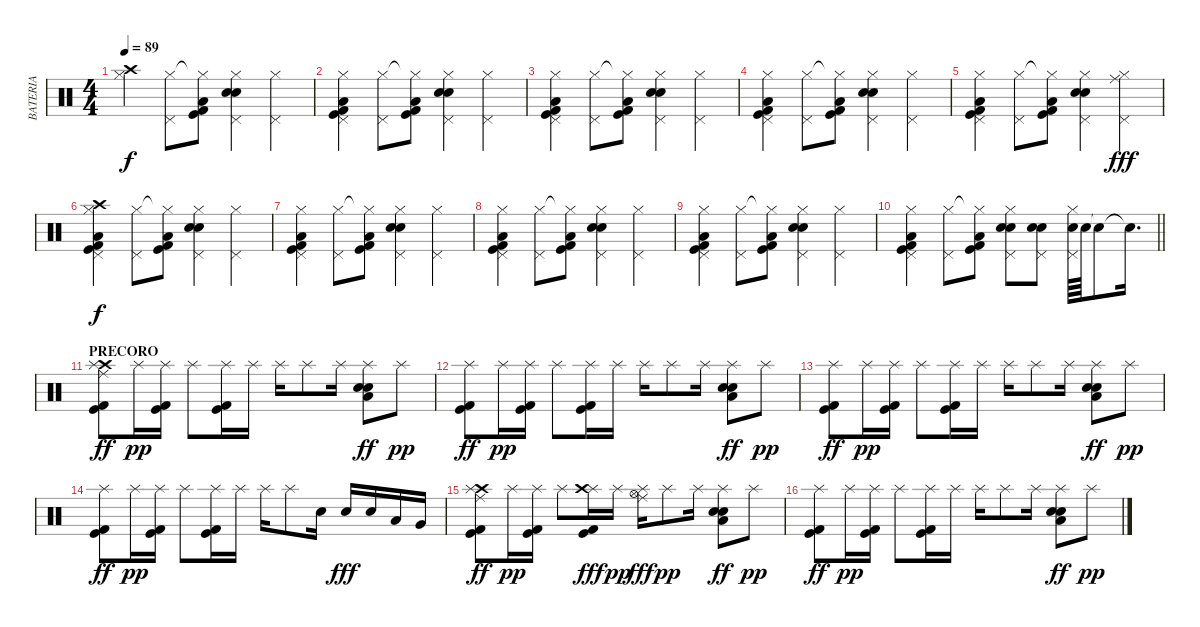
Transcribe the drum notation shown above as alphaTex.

\track ("BATERIA" "BATERIA") {instrument percussion}
\staff {score}
\articulation defaults
\ts (4 4)
\section ("" "")
\tempo 89
\clef neutral
\ks c
("Hi-Hat (closed)" "Crash high (hit)").4{dy f} ("Hi-Hat (closed)" "Pedal Hi-Hat (hit)").8 ("Hi-Hat (closed)"{t} "Kick (hit)" "Kick (hit) 2" "Low Floor Tom (hit)").8 ("Hi-Hat (closed)" "Pedal Hi-Hat (hit)" "Snare (hit) 2" "Snare (hit) 2").4 ("Hi-Hat (closed)" "Pedal Hi-Hat (hit)").4 |
("Hi-Hat (closed)" "Pedal Hi-Hat (hit)" "Kick (hit)" "Kick (hit) 2" "Low Floor Tom (hit)").4 ("Hi-Hat (closed)" "Pedal Hi-Hat (hit)").8 ("Hi-Hat (closed)"{t} "Kick (hit)" "Kick (hit) 2" "Low Floor Tom (hit)").8 ("Hi-Hat (closed)" "Pedal Hi-Hat (hit)" "Snare (hit) 2" "Snare (hit) 2").4 ("Hi-Hat (closed)" "Pedal Hi-Hat (hit)").4 |
("Hi-Hat (closed)" "Pedal Hi-Hat (hit)" "Kick (hit)" "Kick (hit) 2" "Low Floor Tom (hit)").4 ("Hi-Hat (closed)" "Pedal Hi-Hat (hit)").8 ("Hi-Hat (closed)"{t} "Kick (hit)" "Kick (hit) 2" "Low Floor Tom (hit)").8 ("Hi-Hat (closed)" "Pedal Hi-Hat (hit)" "Snare (hit) 2" "Snare (hit) 2").4 ("Hi-Hat (closed)" "Pedal Hi-Hat (hit)").4 |
("Hi-Hat (closed)" "Pedal Hi-Hat (hit)" "Kick (hit)" "Kick (hit) 2" "Low Floor Tom (hit)").4 ("Hi-Hat (closed)" "Pedal Hi-Hat (hit)").8 ("Hi-Hat (closed)"{t} "Kick (hit)" "Kick (hit) 2" "Low Floor Tom (hit)").8 ("Hi-Hat (closed)" "Pedal Hi-Hat (hit)" "Snare (hit) 2" "Snare (hit) 2").4 ("Hi-Hat (closed)" "Pedal Hi-Hat (hit)").4 |
("Hi-Hat (closed)" "Pedal Hi-Hat (hit)" "Kick (hit)" "Kick (hit) 2" "Low Floor Tom (hit)").4 ("Hi-Hat (closed)" "Pedal Hi-Hat (hit)").8 ("Hi-Hat (closed)"{t} "Kick (hit)" "Kick (hit) 2" "Low Floor Tom (hit)").8 ("Hi-Hat (closed)" "Pedal Hi-Hat (hit)" "Snare (hit) 2" "Snare (hit) 2").4 ("Hi-Hat (closed)" "Pedal Hi-Hat (hit)" "Ride (middle)").4{dy fff} |
("Hi-Hat (closed)" "Pedal Hi-Hat (hit)" "Kick (hit)" "Kick (hit) 2" "Low Floor Tom (hit)" "Crash high (hit)").4{dy f} ("Hi-Hat (closed)" "Pedal Hi-Hat (hit)").8 ("Hi-Hat (closed)"{t} "Kick (hit)" "Kick (hit) 2" "Low Floor Tom (hit)").8 ("Hi-Hat (closed)" "Pedal Hi-Hat (hit)" "Snare (hit) 2" "Snare (hit) 2").4 ("Hi-Hat (closed)" "Pedal Hi-Hat (hit)").4 |
("Hi-Hat (closed)" "Pedal Hi-Hat (hit)" "Kick (hit)" "Kick (hit) 2" "Low Floor Tom (hit)").4 ("Hi-Hat (closed)" "Pedal Hi-Hat (hit)").8 ("Hi-Hat (closed)"{t} "Kick (hit)" "Kick (hit) 2" "Low Floor Tom (hit)").8 ("Hi-Hat (closed)" "Pedal Hi-Hat (hit)" "Snare (hit) 2" "Snare (hit) 2").4 ("Hi-Hat (closed)" "Pedal Hi-Hat (hit)").4 |
("Hi-Hat (closed)" "Pedal Hi-Hat (hit)" "Kick (hit)" "Kick (hit) 2" "Low Floor Tom (hit)").4 ("Hi-Hat (closed)" "Pedal Hi-Hat (hit)").8 ("Hi-Hat (closed)"{t} "Kick (hit)" "Kick (hit) 2" "Low Floor Tom (hit)").8 ("Hi-Hat (closed)" "Pedal Hi-Hat (hit)" "Snare (hit) 2" "Snare (hit) 2").4 ("Hi-Hat (closed)" "Pedal Hi-Hat (hit)").4 |
("Hi-Hat (closed)" "Pedal Hi-Hat (hit)" "Kick (hit)" "Kick (hit) 2" "Low Floor Tom (hit)").4 ("Hi-Hat (closed)" "Pedal Hi-Hat (hit)").8 ("Hi-Hat (closed)"{t} "Kick (hit)" "Kick (hit) 2" "Low Floor Tom (hit)").8 ("Hi-Hat (closed)" "Pedal Hi-Hat (hit)" "Snare (hit) 2" "Snare (hit) 2").4 ("Hi-Hat (closed)" "Pedal Hi-Hat (hit)").4 |
\barLineRight lightlight
("Hi-Hat (closed)" "Pedal Hi-Hat (hit)" "Kick (hit)" "Kick (hit) 2" "Low Floor Tom (hit)").4 ("Hi-Hat (closed)" "Pedal Hi-Hat (hit)").8 ("Hi-Hat (closed)"{t} "Kick (hit)" "Kick (hit) 2" "Low Floor Tom (hit)").8 ("Hi-Hat (closed)" "Pedal Hi-Hat (hit)" "Snare (hit) 2" "Snare (hit) 2").8 ("Pedal Hi-Hat (hit)" "Snare (hit) 2" "Snare (hit) 2").8 ("Hi-Hat (closed)" "Pedal Hi-Hat (hit)" "Snare (hit) 2").64 "Snare (hit) 2".64 "Snare (hit)"{t}.8 "Snare (hit)"{t}.16{d} |
\section ("" "PRECORO")
("Crash high (hit)" "Splash (hit)" "Ride (middle)" "Kick (hit)" "Kick (hit) 2").8{dy ff} "Splash (hit)".16{dy pp} ("Splash (hit)" "Kick (hit)" "Kick (hit) 2").16 "Splash (hit)".8 ("Splash (hit)" "Kick (hit)" "Kick (hit) 2").16 "Splash (hit)".16 "Splash (hit)".16 "Splash (hit)".8 "Splash (hit)".16 ("Splash (hit)" "Snare (hit) 2" "Snare (hit) 2" "Low Floor Tom (hit)").8{dy ff} "Splash (hit)".8{dy pp} |
("Splash (hit)" "Kick (hit)" "Kick (hit) 2").8{dy ff} "Splash (hit)".16{dy pp} ("Splash (hit)" "Kick (hit)" "Kick (hit) 2").16 "Splash (hit)".8 ("Splash (hit)" "Kick (hit)" "Kick (hit) 2").16 "Splash (hit)".16 "Splash (hit)".16 "Splash (hit)".8 "Splash (hit)".16 ("Splash (hit)" "Snare (hit) 2" "Snare (hit) 2" "Low Floor Tom (hit)").8{dy ff} "Splash (hit)".8{dy pp} |
("Splash (hit)" "Kick (hit)" "Kick (hit) 2").8{dy ff} "Splash (hit)".16{dy pp} ("Splash (hit)" "Kick (hit)" "Kick (hit) 2").16 "Splash (hit)".8 ("Splash (hit)" "Kick (hit)" "Kick (hit) 2").16 "Splash (hit)".16 "Splash (hit)".16 "Splash (hit)".8 "Splash (hit)".16 ("Splash (hit)" "Snare (hit) 2" "Snare (hit) 2" "Low Floor Tom (hit)").8{dy ff} "Splash (hit)".8{dy pp} |
("Splash (hit)" "Kick (hit)" "Kick (hit) 2").8{dy ff} "Splash (hit)".16{dy pp} ("Splash (hit)" "Kick (hit)" "Kick (hit) 2").16 "Splash (hit)".8 ("Splash (hit)" "Kick (hit)" "Kick (hit) 2").16 "Splash (hit)".16 "Splash (hit)".16 "Splash (hit)".8 "Snare (hit) 2".16 "Snare (hit) 2".16{dy fff} "Snare (hit) 2".16 "Low Floor Tom (hit)".16 "Very Low Tom (hit)".16 |
("Crash high (hit)" "Splash (hit)" "Ride (middle)" "Kick (hit)" "Kick (hit) 2").8{dy ff} "Splash (hit)".16{dy pp} ("Splash (hit)" "Kick (hit)" "Kick (hit) 2").16 "Splash (hit)".8 ("Splash (hit)" "Crash high (hit)" "Kick (hit)" "Kick (hit) 2").16{dy fff} "Splash (hit)".16{dy pp} ("Splash (hit)" "Hi-Hat (open)" "Ride (middle)").16{dy fff} "Splash (hit)".8{dy pp} "Splash (hit)".16 ("Splash (hit)" "Snare (hit) 2" "Snare (hit) 2" "Low Floor Tom (hit)").8{dy ff} "Splash (hit)".8{dy pp} |
("Splash (hit)" "Kick (hit)" "Kick (hit) 2").8{dy ff} "Splash (hit)".16{dy pp} ("Splash (hit)" "Kick (hit)" "Kick (hit) 2").16 "Splash (hit)".8 ("Splash (hit)" "Kick (hit)" "Kick (hit) 2").16 "Splash (hit)".16 "Splash (hit)".16 "Splash (hit)".8 "Splash (hit)".16 ("Splash (hit)" "Snare (hit) 2" "Snare (hit) 2" "Low Floor Tom (hit)").8{dy ff} "Splash (hit)".8{dy pp}
